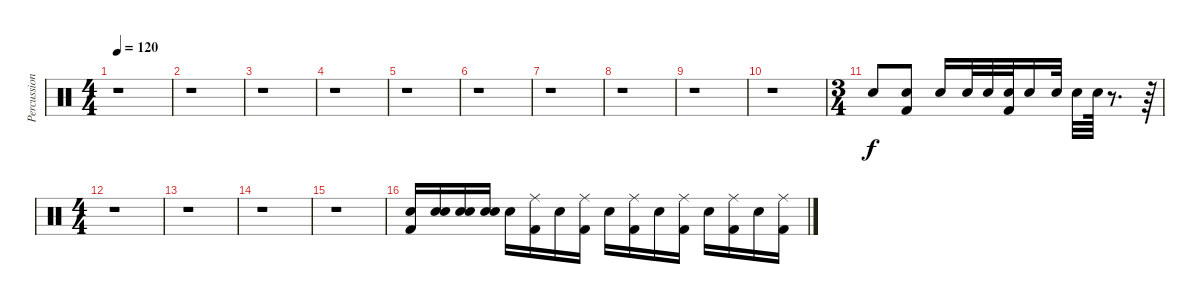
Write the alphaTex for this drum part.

\track ("Percussions" "Percussion") {instrument percussion}
\staff {score}
\articulation defaults
\ts (4 4)
\tempo 120
\clef neutral
\ks c
r.1{dy f} |
r.1 |
r.1 |
r.1 |
r.1 |
r.1 |
r.1 |
r.1 |
r.1 |
r.1 |
\ts (3 4)
"Snare (hit) 2".8 ("Kick (hit) 2" "Snare (hit) 2").8 "Snare (hit) 2".16 "Snare (hit) 2".32 "Snare (hit) 2".32 ("Kick (hit) 2" "Snare (hit) 2").32 "Snare (hit) 2".16 "Snare (hit) 2".32 "Snare (hit) 2".32 "Snare (hit) 2".64 r.8{d} r.64 |
\ts (4 4)
r.1 |
r.1 |
r.1 |
r.1 |
("Kick (hit) 2" "Electric Snare (hit)").16 ("Snare (hit) 2" "Electric Snare (hit)").16 ("Snare (hit) 2" "Electric Snare (hit)").16 ("Snare (hit) 2" "Electric Snare (hit)").16 "Electric Snare (hit)".16 ("Kick (hit) 2" "Ride (middle)").16 "Electric Snare (hit)".16 ("Kick (hit) 2" "Ride (middle)").16 "Electric Snare (hit)".16 ("Kick (hit) 2" "Ride (middle)").16 "Electric Snare (hit)".16 ("Kick (hit) 2" "Ride (middle)").16 "Electric Snare (hit)".16 ("Kick (hit) 2" "Ride (middle)").16 "Electric Snare (hit)".16 ("Kick (hit) 2" "Ride (middle)").16
